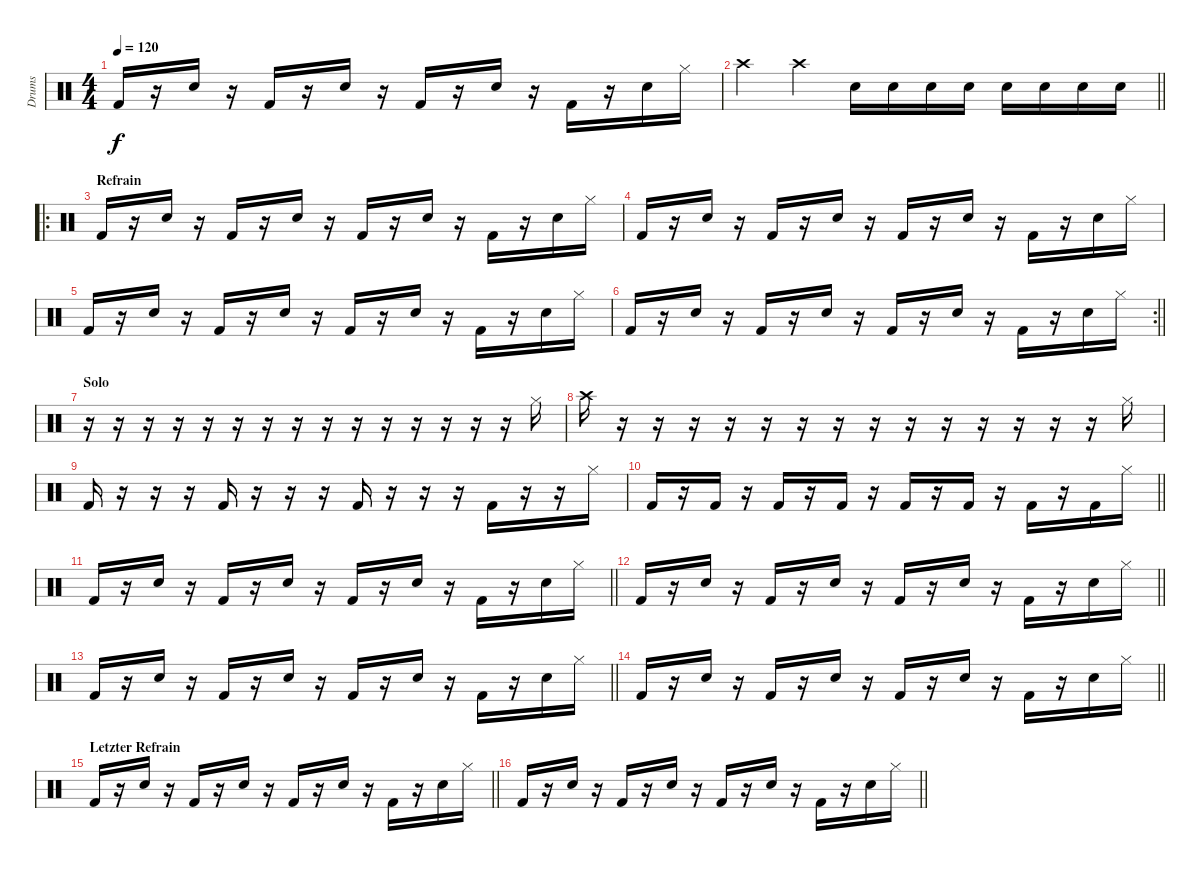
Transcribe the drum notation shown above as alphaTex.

\track ("Drums" "Drums") {instrument percussion}
\staff {score}
\articulation defaults
\ts (4 4)
\tempo 120
\clef neutral
\ks c "Kick (hit) 2".16{dy f}
r.16 "Snare (hit) 2".16 r.16 "Kick (hit) 2".16 r.16 "Snare (hit) 2".16 r.16 "Kick (hit) 2".16 r.16 "Snare (hit) 2".16 r.16 "Kick (hit) 2".16 r.16 "Snare (hit) 2".16 "Hi-Hat (closed)".16 |
\barLineRight lightlight "Crash high (hit)".4 "Crash high (hit)".4 "Electric Snare (hit)".16 "Electric Snare (hit)".16 "Electric Snare (hit)".16 "Electric Snare (hit)".16 "Electric Snare (hit)".16 "Electric Snare (hit)".16 "Electric Snare (hit)".16 "Electric Snare (hit)".16
|
\ro
\section ("" "Refrain")
"Kick (hit) 2".16 r.16 "Snare (hit) 2".16 r.16 "Kick (hit) 2".16 r.16 "Snare (hit) 2".16 r.16 "Kick (hit) 2".16 r.16 "Snare (hit) 2".16 r.16 "Kick (hit) 2".16 r.16 "Snare (hit) 2".16 "Hi-Hat (closed)".16 |
"Kick (hit) 2".16 r.16 "Snare (hit) 2".16 r.16 "Kick (hit) 2".16 r.16 "Snare (hit) 2".16 r.16 "Kick (hit) 2".16 r.16 "Snare (hit) 2".16 r.16 "Kick (hit) 2".16 r.16 "Snare (hit) 2".16 "Hi-Hat (closed)".16 |
"Kick (hit) 2".16 r.16 "Snare (hit) 2".16 r.16 "Kick (hit) 2".16 r.16 "Snare (hit) 2".16 r.16 "Kick (hit) 2".16 r.16 "Snare (hit) 2".16 r.16 "Kick (hit) 2".16 r.16 "Snare (hit) 2".16 "Hi-Hat (closed)".16 |
\rc 2
\barLineRight lightlight "Kick (hit) 2".16
r.16 "Snare (hit) 2".16 r.16 "Kick (hit) 2".16 r.16 "Snare (hit) 2".16 r.16 "Kick (hit) 2".16 r.16 "Snare (hit) 2".16 r.16 "Kick (hit) 2".16 r.16 "Snare (hit) 2".16 "Hi-Hat (closed)".16 |
\section ("" "Solo")
r.16 r.16 r.16 r.16 r.16 r.16 r.16 r.16 r.16 r.16 r.16 r.16 r.16 r.16 r.16 "Hi-Hat (closed)".16 |
"Crash high (hit)".16 r.16 r.16 r.16 r.16 r.16 r.16 r.16 r.16 r.16 r.16 r.16 r.16 r.16 r.16 "Hi-Hat (closed)".16 |
"Kick (hit) 2".16 r.16 r.16 r.16 "Kick (hit) 2".16 r.16 r.16 r.16 "Kick (hit) 2".16 r.16 r.16 r.16 "Kick (hit) 2".16 r.16 r.16 "Hi-Hat (closed)".16 |
\barLineRight lightlight "Kick (hit) 2".16
r.16 "Kick (hit) 2".16 r.16 "Kick (hit) 2".16 r.16 "Kick (hit) 2".16 r.16 "Kick (hit) 2".16 r.16 "Kick (hit) 2".16 r.16 "Kick (hit) 2".16 r.16 "Kick (hit) 2".16 "Hi-Hat (closed)".16 |
\barLineRight lightlight "Kick (hit) 2".16
r.16 "Snare (hit) 2".16 r.16 "Kick (hit) 2".16 r.16 "Snare (hit) 2".16 r.16 "Kick (hit) 2".16 r.16 "Snare (hit) 2".16 r.16 "Kick (hit) 2".16 r.16 "Snare (hit) 2".16 "Hi-Hat (closed)".16 |
\barLineRight lightlight "Kick (hit) 2".16
r.16 "Snare (hit) 2".16 r.16 "Kick (hit) 2".16 r.16 "Snare (hit) 2".16 r.16 "Kick (hit) 2".16 r.16 "Snare (hit) 2".16 r.16 "Kick (hit) 2".16 r.16 "Snare (hit) 2".16 "Hi-Hat (closed)".16 |
\barLineRight lightlight "Kick (hit) 2".16
r.16 "Snare (hit) 2".16 r.16 "Kick (hit) 2".16 r.16 "Snare (hit) 2".16 r.16 "Kick (hit) 2".16 r.16 "Snare (hit) 2".16 r.16 "Kick (hit) 2".16 r.16 "Snare (hit) 2".16 "Hi-Hat (closed)".16 |
\barLineRight lightlight "Kick (hit) 2".16
r.16 "Snare (hit) 2".16 r.16 "Kick (hit) 2".16 r.16 "Snare (hit) 2".16 r.16 "Kick (hit) 2".16 r.16 "Snare (hit) 2".16 r.16 "Kick (hit) 2".16 r.16 "Snare (hit) 2".16 "Hi-Hat (closed)".16 |
\section ("" "Letzter Refrain")
\barLineRight lightlight "Kick (hit) 2".16
r.16 "Snare (hit) 2".16 r.16 "Kick (hit) 2".16 r.16 "Snare (hit) 2".16 r.16 "Kick (hit) 2".16 r.16 "Snare (hit) 2".16 r.16 "Kick (hit) 2".16 r.16 "Snare (hit) 2".16 "Hi-Hat (closed)".16 |
\barLineRight lightlight "Kick (hit) 2".16
r.16 "Snare (hit) 2".16 r.16 "Kick (hit) 2".16 r.16 "Snare (hit) 2".16 r.16 "Kick (hit) 2".16 r.16 "Snare (hit) 2".16 r.16 "Kick (hit) 2".16 r.16 "Snare (hit) 2".16 "Hi-Hat (closed)".16
